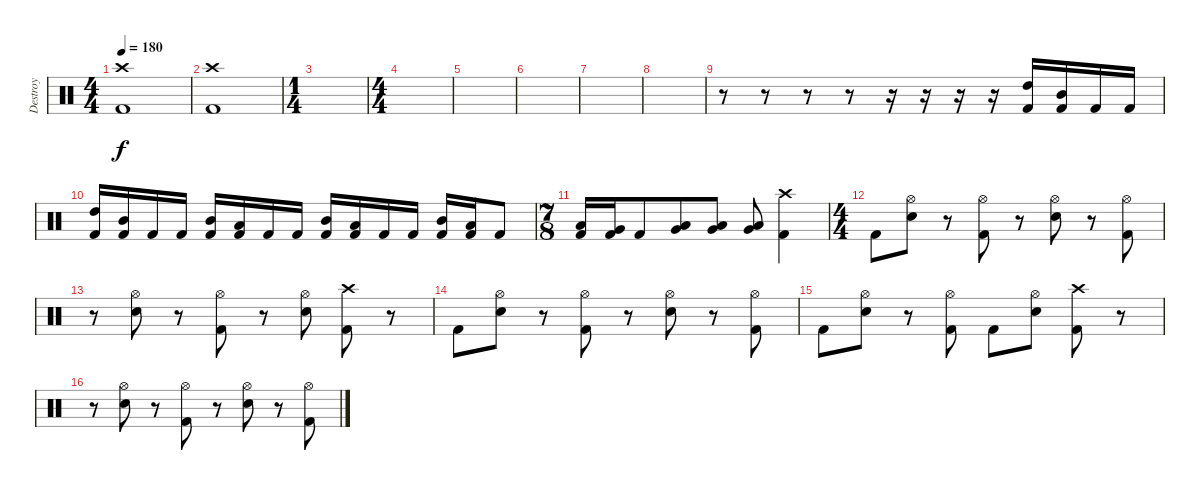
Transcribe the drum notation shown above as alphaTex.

\track ("Destroy" "Destroy") {instrument percussion}
\staff {score}
\articulation defaults
\ts (4 4)
\tempo 180
\clef neutral
\ks c
("Crash high (hit)" "Kick (hit) 2").1{dy f} |
("Crash high (hit)" "Kick (hit) 2").1 |
\ts (1 4)
|
\ts (4 4)
|
|
|
|
|
r.8 r.8 r.8 r.8 r.16 r.16 r.16 r.16 ("High Tom (hit)" "Kick (hit) 2").16 ("Mid Tom (hit)" "Kick (hit) 2").16 "Kick (hit) 2".16 "Kick (hit) 2".16 |
("High Tom (hit)" "Kick (hit) 2").16 ("Mid Tom (hit)" "Kick (hit) 2").16 "Kick (hit) 2".16 "Kick (hit) 2".16 ("Mid Tom (hit)" "Kick (hit) 2").16 ("Low Tom (hit)" "Kick (hit) 2").16 "Kick (hit) 2".16 "Kick (hit) 2".16 ("Mid Tom (hit)" "Kick (hit) 2").16 ("Low Tom (hit)" "Kick (hit) 2").16 "Kick (hit) 2".16 "Kick (hit) 2".16 ("Mid Tom (hit)" "Kick (hit) 2").16 ("Low Tom (hit)" "Kick (hit) 2").16 "Kick (hit) 2".8 |
\ts (7 8)
("Low Tom (hit)" "Kick (hit) 2").16 ("Very Low Tom (hit)" "Kick (hit) 2").16 "Kick (hit) 2".8 ("Very Low Tom (hit)" "Low Floor Tom (hit)").8 ("Very Low Tom (hit)" "Low Floor Tom (hit)").8 ("Very Low Tom (hit)" "Low Floor Tom (hit)").8 ("Crash high (hit)" "Kick (hit) 2").4 |
\ts (4 4)
"Kick (hit) 2".8 ("Hi-Hat (open)" "Electric Snare (hit)").8 r.8 ("Hi-Hat (open)" "Kick (hit) 2").8 r.8 ("Hi-Hat (open)" "Electric Snare (hit)").8 r.8 ("Hi-Hat (open)" "Kick (hit) 2").8 |
r.8 ("Hi-Hat (open)" "Electric Snare (hit)").8 r.8 ("Hi-Hat (open)" "Kick (hit) 2").8 r.8 ("Hi-Hat (open)" "Electric Snare (hit)").8 ("Crash high (hit)" "Kick (hit) 2").8 r.8 |
"Kick (hit) 2".8 ("Hi-Hat (open)" "Electric Snare (hit)").8 r.8 ("Hi-Hat (open)" "Kick (hit) 2").8 r.8 ("Hi-Hat (open)" "Electric Snare (hit)").8 r.8 ("Hi-Hat (open)" "Kick (hit) 2").8 |
"Kick (hit) 2".8 ("Hi-Hat (open)" "Electric Snare (hit)").8 r.8 ("Hi-Hat (open)" "Kick (hit) 2").8 "Kick (hit) 2".8 ("Hi-Hat (open)" "Electric Snare (hit)").8 ("Crash high (hit)" "Kick (hit) 2").8 r.8 |
r.8 ("Hi-Hat (open)" "Electric Snare (hit)").8 r.8 ("Hi-Hat (open)" "Kick (hit) 2").8 r.8 ("Hi-Hat (open)" "Electric Snare (hit)").8 r.8 ("Hi-Hat (open)" "Kick (hit) 2").8
